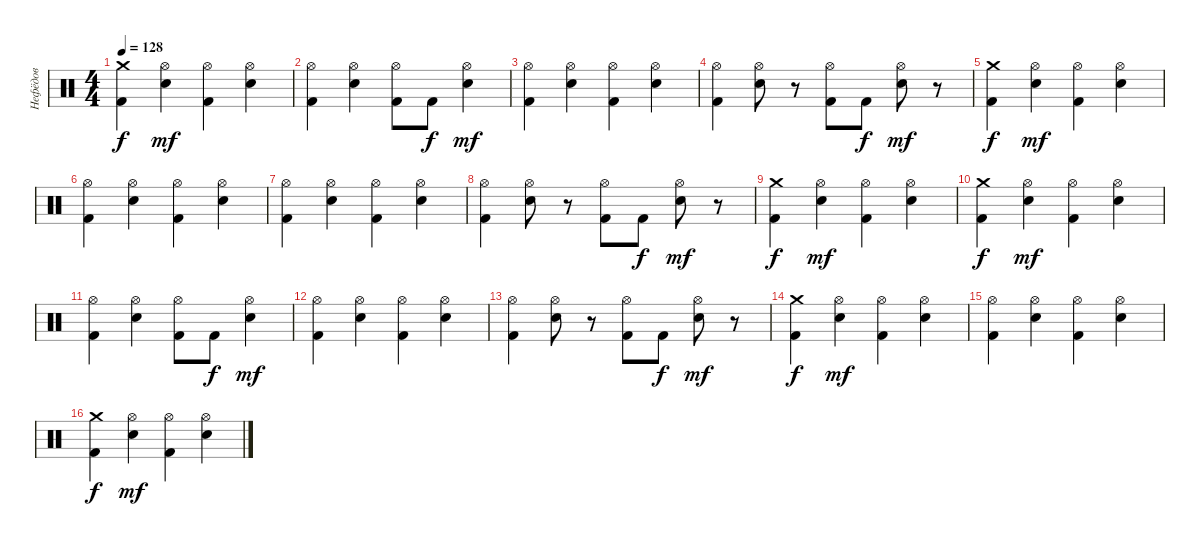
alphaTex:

\track ("Нефёдов" "Нефёдов") {instrument percussion}
\staff {score}
\articulation defaults
\ts (4 4)
\tempo 128
\clef neutral
\ks c
("Crash medium (hit)" "Kick (hit) 2").4{dy f} ("Hi-Hat (open)" "Snare (hit) 2").4{dy mf} ("Hi-Hat (open)" "Kick (hit) 2").4 ("Hi-Hat (open)" "Snare (hit) 2").4 |
("Hi-Hat (open)" "Kick (hit) 2").4 ("Hi-Hat (open)" "Snare (hit) 2").4 ("Hi-Hat (open)" "Kick (hit) 2").8 "Kick (hit) 2".8{dy f} ("Hi-Hat (open)" "Snare (hit) 2").4{dy mf} |
("Hi-Hat (open)" "Kick (hit) 2").4 ("Hi-Hat (open)" "Snare (hit) 2").4 ("Hi-Hat (open)" "Kick (hit) 2").4 ("Hi-Hat (open)" "Snare (hit) 2").4 |
("Hi-Hat (open)" "Kick (hit) 2").4 ("Hi-Hat (open)" "Snare (hit) 2").8 r.8 ("Hi-Hat (open)" "Kick (hit) 2").8 "Kick (hit) 2".8{dy f} ("Hi-Hat (open)" "Snare (hit) 2").8{dy mf} r.8 |
("Crash medium (hit)" "Kick (hit) 2").4{dy f} ("Hi-Hat (open)" "Snare (hit) 2").4{dy mf} ("Hi-Hat (open)" "Kick (hit) 2").4 ("Hi-Hat (open)" "Snare (hit) 2").4 |
("Hi-Hat (open)" "Kick (hit) 2").4 ("Hi-Hat (open)" "Snare (hit) 2").4 ("Hi-Hat (open)" "Kick (hit) 2").4 ("Hi-Hat (open)" "Snare (hit) 2").4 |
("Hi-Hat (open)" "Kick (hit) 2").4 ("Hi-Hat (open)" "Snare (hit) 2").4 ("Hi-Hat (open)" "Kick (hit) 2").4 ("Hi-Hat (open)" "Snare (hit) 2").4 |
("Hi-Hat (open)" "Kick (hit) 2").4 ("Hi-Hat (open)" "Snare (hit) 2").8 r.8 ("Hi-Hat (open)" "Kick (hit) 2").8 "Kick (hit) 2".8{dy f} ("Hi-Hat (open)" "Snare (hit) 2").8{dy mf} r.8 |
("Crash medium (hit)" "Kick (hit) 2").4{dy f} ("Hi-Hat (open)" "Snare (hit) 2").4{dy mf} ("Hi-Hat (open)" "Kick (hit) 2").4 ("Hi-Hat (open)" "Snare (hit) 2").4 |
("Crash medium (hit)" "Kick (hit) 2").4{dy f} ("Hi-Hat (open)" "Snare (hit) 2").4{dy mf} ("Hi-Hat (open)" "Kick (hit) 2").4 ("Hi-Hat (open)" "Snare (hit) 2").4 |
("Hi-Hat (open)" "Kick (hit) 2").4 ("Hi-Hat (open)" "Snare (hit) 2").4 ("Hi-Hat (open)" "Kick (hit) 2").8 "Kick (hit) 2".8{dy f} ("Hi-Hat (open)" "Snare (hit) 2").4{dy mf} |
("Hi-Hat (open)" "Kick (hit) 2").4 ("Hi-Hat (open)" "Snare (hit) 2").4 ("Hi-Hat (open)" "Kick (hit) 2").4 ("Hi-Hat (open)" "Snare (hit) 2").4 |
("Hi-Hat (open)" "Kick (hit) 2").4 ("Hi-Hat (open)" "Snare (hit) 2").8 r.8 ("Hi-Hat (open)" "Kick (hit) 2").8 "Kick (hit) 2".8{dy f} ("Hi-Hat (open)" "Snare (hit) 2").8{dy mf} r.8 |
("Crash medium (hit)" "Kick (hit) 2").4{dy f} ("Hi-Hat (open)" "Snare (hit) 2").4{dy mf} ("Hi-Hat (open)" "Kick (hit) 2").4 ("Hi-Hat (open)" "Snare (hit) 2").4 |
("Hi-Hat (open)" "Kick (hit) 2").4 ("Hi-Hat (open)" "Snare (hit) 2").4 ("Hi-Hat (open)" "Kick (hit) 2").4 ("Hi-Hat (open)" "Snare (hit) 2").4 |
("Crash medium (hit)" "Kick (hit) 2").4{dy f} ("Hi-Hat (open)" "Snare (hit) 2").4{dy mf} ("Hi-Hat (open)" "Kick (hit) 2").4 ("Hi-Hat (open)" "Snare (hit) 2").4
